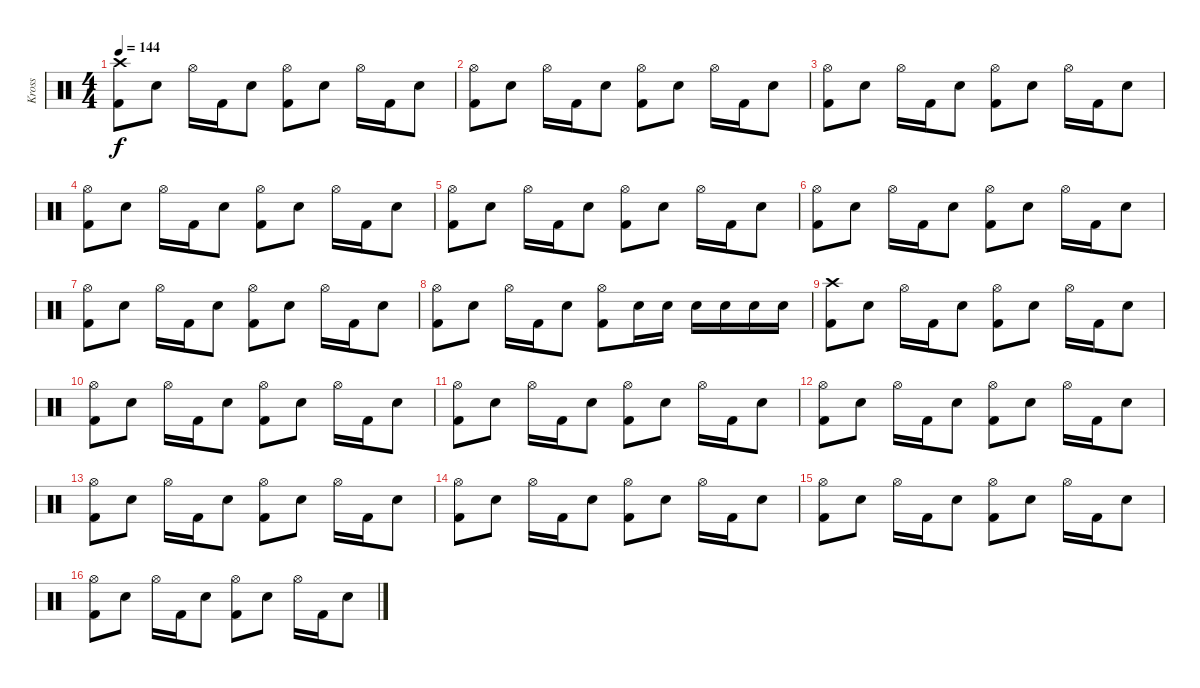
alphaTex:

\track ("Kross" "Kross") {instrument percussion}
\staff {score}
\articulation defaults
\ts (4 4)
\tempo 144
\clef neutral
\ks c
("Crash high (hit)" "Kick (hit) 2").8{dy f} "Electric Snare (hit)".8 "Hi-Hat (open)".16 "Kick (hit) 2".16 "Electric Snare (hit)".8 ("Hi-Hat (open)" "Kick (hit) 2").8 "Electric Snare (hit)".8 "Hi-Hat (open)".16 "Kick (hit) 2".16 "Electric Snare (hit)".8 |
("Hi-Hat (open)" "Kick (hit) 2").8 "Electric Snare (hit)".8 "Hi-Hat (open)".16 "Kick (hit) 2".16 "Electric Snare (hit)".8 ("Hi-Hat (open)" "Kick (hit) 2").8 "Electric Snare (hit)".8 "Hi-Hat (open)".16 "Kick (hit) 2".16 "Electric Snare (hit)".8 |
("Hi-Hat (open)" "Kick (hit) 2").8 "Electric Snare (hit)".8 "Hi-Hat (open)".16 "Kick (hit) 2".16 "Electric Snare (hit)".8 ("Hi-Hat (open)" "Kick (hit) 2").8 "Electric Snare (hit)".8 "Hi-Hat (open)".16 "Kick (hit) 2".16 "Electric Snare (hit)".8 |
("Hi-Hat (open)" "Kick (hit) 2").8 "Electric Snare (hit)".8 "Hi-Hat (open)".16 "Kick (hit) 2".16 "Electric Snare (hit)".8 ("Hi-Hat (open)" "Kick (hit) 2").8 "Electric Snare (hit)".8 "Hi-Hat (open)".16 "Kick (hit) 2".16 "Electric Snare (hit)".8 |
("Hi-Hat (open)" "Kick (hit) 2").8 "Electric Snare (hit)".8 "Hi-Hat (open)".16 "Kick (hit) 2".16 "Electric Snare (hit)".8 ("Hi-Hat (open)" "Kick (hit) 2").8 "Electric Snare (hit)".8 "Hi-Hat (open)".16 "Kick (hit) 2".16 "Electric Snare (hit)".8 |
("Hi-Hat (open)" "Kick (hit) 2").8 "Electric Snare (hit)".8 "Hi-Hat (open)".16 "Kick (hit) 2".16 "Electric Snare (hit)".8 ("Hi-Hat (open)" "Kick (hit) 2").8 "Electric Snare (hit)".8 "Hi-Hat (open)".16 "Kick (hit) 2".16 "Electric Snare (hit)".8 |
("Hi-Hat (open)" "Kick (hit) 2").8 "Electric Snare (hit)".8 "Hi-Hat (open)".16 "Kick (hit) 2".16 "Electric Snare (hit)".8 ("Hi-Hat (open)" "Kick (hit) 2").8 "Electric Snare (hit)".8 "Hi-Hat (open)".16 "Kick (hit) 2".16 "Electric Snare (hit)".8 |
("Hi-Hat (open)" "Kick (hit) 2").8 "Electric Snare (hit)".8 "Hi-Hat (open)".16 "Kick (hit) 2".16 "Electric Snare (hit)".8 ("Hi-Hat (open)" "Kick (hit) 2").8 "Electric Snare (hit)".16 "Electric Snare (hit)".16 "Electric Snare (hit)".16 "Electric Snare (hit)".16 "Electric Snare (hit)".16 "Electric Snare (hit)".16 |
("Crash high (hit)" "Kick (hit) 2").8 "Electric Snare (hit)".8 "Hi-Hat (open)".16 "Kick (hit) 2".16 "Electric Snare (hit)".8 ("Hi-Hat (open)" "Kick (hit) 2").8 "Electric Snare (hit)".8 "Hi-Hat (open)".16 "Kick (hit) 2".16 "Electric Snare (hit)".8 |
("Hi-Hat (open)" "Kick (hit) 2").8 "Electric Snare (hit)".8 "Hi-Hat (open)".16 "Kick (hit) 2".16 "Electric Snare (hit)".8 ("Hi-Hat (open)" "Kick (hit) 2").8 "Electric Snare (hit)".8 "Hi-Hat (open)".16 "Kick (hit) 2".16 "Electric Snare (hit)".8 |
("Hi-Hat (open)" "Kick (hit) 2").8 "Electric Snare (hit)".8 "Hi-Hat (open)".16 "Kick (hit) 2".16 "Electric Snare (hit)".8 ("Hi-Hat (open)" "Kick (hit) 2").8 "Electric Snare (hit)".8 "Hi-Hat (open)".16 "Kick (hit) 2".16 "Electric Snare (hit)".8 |
("Hi-Hat (open)" "Kick (hit) 2").8 "Electric Snare (hit)".8 "Hi-Hat (open)".16 "Kick (hit) 2".16 "Electric Snare (hit)".8 ("Hi-Hat (open)" "Kick (hit) 2").8 "Electric Snare (hit)".8 "Hi-Hat (open)".16 "Kick (hit) 2".16 "Electric Snare (hit)".8 |
("Hi-Hat (open)" "Kick (hit) 2").8 "Electric Snare (hit)".8 "Hi-Hat (open)".16 "Kick (hit) 2".16 "Electric Snare (hit)".8 ("Hi-Hat (open)" "Kick (hit) 2").8 "Electric Snare (hit)".8 "Hi-Hat (open)".16 "Kick (hit) 2".16 "Electric Snare (hit)".8 |
("Hi-Hat (open)" "Kick (hit) 2").8 "Electric Snare (hit)".8 "Hi-Hat (open)".16 "Kick (hit) 2".16 "Electric Snare (hit)".8 ("Hi-Hat (open)" "Kick (hit) 2").8 "Electric Snare (hit)".8 "Hi-Hat (open)".16 "Kick (hit) 2".16 "Electric Snare (hit)".8 |
("Hi-Hat (open)" "Kick (hit) 2").8 "Electric Snare (hit)".8 "Hi-Hat (open)".16 "Kick (hit) 2".16 "Electric Snare (hit)".8 ("Hi-Hat (open)" "Kick (hit) 2").8 "Electric Snare (hit)".8 "Hi-Hat (open)".16 "Kick (hit) 2".16 "Electric Snare (hit)".8 |
("Hi-Hat (open)" "Kick (hit) 2").8 "Electric Snare (hit)".8 "Hi-Hat (open)".16 "Kick (hit) 2".16 "Electric Snare (hit)".8 ("Hi-Hat (open)" "Kick (hit) 2").8 "Electric Snare (hit)".8 "Hi-Hat (open)".16 "Kick (hit) 2".16 "Electric Snare (hit)".8
